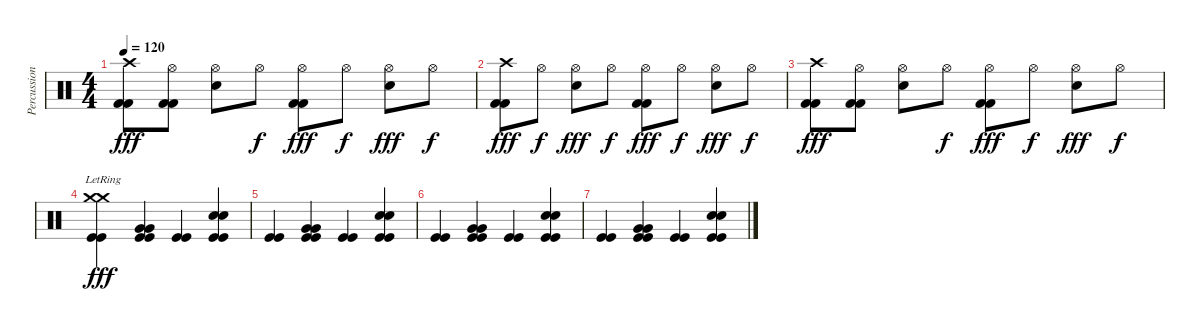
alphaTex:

\track ("Percussion" "Percussion") {instrument percussion}
\staff {score}
\articulation defaults
\ts (4 4)
\tempo 120
\clef neutral
\ks c
("Crash high (hit)" "Kick (hit) 2" "Kick (hit) 2").8{dy fff} ("Hi-Hat (open)" "Kick (hit) 2" "Kick (hit) 2").8 ("Hi-Hat (open)" "Snare (hit) 2").8 "Hi-Hat (open)".8{dy f} ("Hi-Hat (open)" "Kick (hit) 2" "Kick (hit) 2").8{dy fff} "Hi-Hat (open)".8{dy f} ("Hi-Hat (open)" "Snare (hit) 2").8{dy fff} "Hi-Hat (open)".8{dy f} |
("Crash high (hit)" "Kick (hit) 2" "Kick (hit) 2").8{dy fff} "Hi-Hat (open)".8{dy f} ("Hi-Hat (open)" "Snare (hit) 2").8{dy fff} "Hi-Hat (open)".8{dy f} ("Hi-Hat (open)" "Kick (hit) 2" "Kick (hit) 2").8{dy fff} "Hi-Hat (open)".8{dy f} ("Hi-Hat (open)" "Snare (hit) 2").8{dy fff} "Hi-Hat (open)".8{dy f} |
("Crash high (hit)" "Kick (hit) 2" "Kick (hit) 2").8{dy fff} ("Hi-Hat (open)" "Kick (hit) 2" "Kick (hit) 2").8 ("Hi-Hat (open)" "Snare (hit) 2").8 "Hi-Hat (open)".8{dy f} ("Hi-Hat (open)" "Kick (hit) 2" "Kick (hit) 2").8{dy fff} "Hi-Hat (open)".8{dy f} ("Hi-Hat (open)" "Snare (hit) 2").8{dy fff} "Hi-Hat (open)".8{dy f} |
("Kick (hit)" "Kick (hit)" "Crash medium (hit)"{lr} "Crash medium (hit)"{lr}).4{dy fff volume 0} ("Kick (hit)" "Kick (hit)" "Very Low Tom (hit)" "Very Low Tom (hit)").4 ("Kick (hit)" "Kick (hit)").4 ("Kick (hit)" "Kick (hit)" "Snare (hit) 2" "Snare (hit) 2").4 |
("Kick (hit)" "Kick (hit)").4 ("Kick (hit)" "Kick (hit)" "Very Low Tom (hit)" "Very Low Tom (hit)").4 ("Kick (hit)" "Kick (hit)").4 ("Kick (hit)" "Kick (hit)" "Snare (hit) 2" "Snare (hit) 2").4 |
("Kick (hit)" "Kick (hit)").4 ("Kick (hit)" "Kick (hit)" "Very Low Tom (hit)" "Very Low Tom (hit)").4 ("Kick (hit)" "Kick (hit)").4 ("Kick (hit)" "Kick (hit)" "Snare (hit) 2" "Snare (hit) 2").4 |
("Kick (hit)" "Kick (hit)").4 ("Kick (hit)" "Kick (hit)" "Very Low Tom (hit)" "Very Low Tom (hit)").4 ("Kick (hit)" "Kick (hit)").4 ("Kick (hit)" "Kick (hit)" "Snare (hit) 2" "Snare (hit) 2").4
